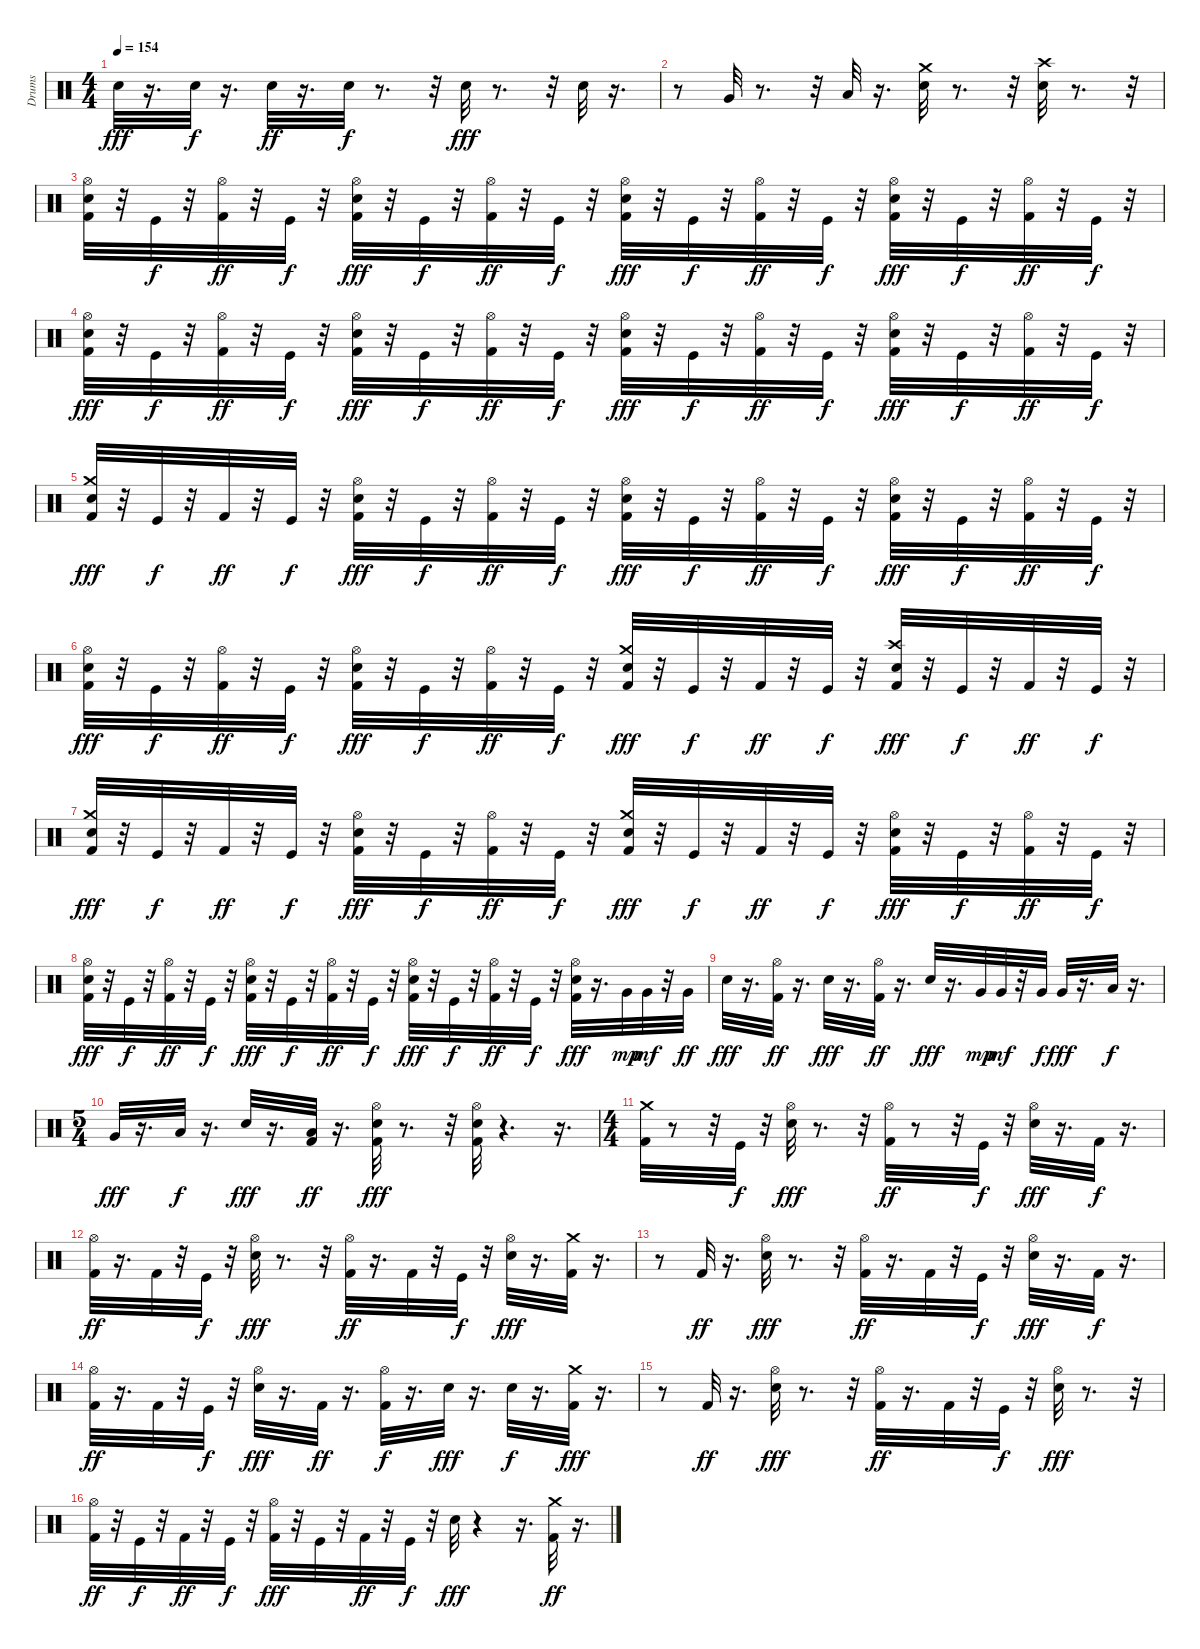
\track ("Drums" "Drums") {instrument percussion}
\staff {score}
\articulation defaults
\ts (4 4)
\tempo 154
\clef neutral
\ks c "Snare (hit) 2".32{dy fff}
r.16{d} "Snare (hit) 2".32{dy f} r.16{d} "Snare (hit) 2".32{dy ff} r.16{d} "Snare (hit) 2".32{dy f} r.8{d} r.32 "Snare (hit) 2".32{dy fff} r.8{d} r.32 "Snare (hit) 2".32 r.16{d} |
r.8 "Very Low Tom (hit)".32 r.8{d} r.32 "Low Floor Tom (hit)".32 r.16{d} ("Crash medium (hit)" "Snare (hit) 2").32 r.8{d} r.32 ("Crash high (hit)" "Snare (hit) 2").32 r.8{d} r.32 |
("Kick (hit) 2" "Snare (hit) 2" "Hi-Hat (open)").32 r.32 "Kick (hit)".32{dy f} r.32 ("Kick (hit) 2" "Hi-Hat (open)").32{dy ff} r.32 "Kick (hit)".32{dy f} r.32 ("Kick (hit) 2" "Snare (hit) 2" "Hi-Hat (open)").32{dy fff} r.32 "Kick (hit)".32{dy f} r.32 ("Kick (hit) 2" "Hi-Hat (open)").32{dy ff} r.32 "Kick (hit)".32{dy f} r.32 ("Kick (hit) 2" "Snare (hit) 2" "Hi-Hat (open)").32{dy fff} r.32 "Kick (hit)".32{dy f} r.32 ("Kick (hit) 2" "Hi-Hat (open)").32{dy ff} r.32 "Kick (hit)".32{dy f} r.32 ("Kick (hit) 2" "Snare (hit) 2" "Hi-Hat (open)").32{dy fff} r.32 "Kick (hit)".32{dy f} r.32 ("Kick (hit) 2" "Hi-Hat (open)").32{dy ff} r.32 "Kick (hit)".32{dy f} r.32 |
("Kick (hit) 2" "Snare (hit) 2" "Hi-Hat (open)").32{dy fff} r.32 "Kick (hit)".32{dy f} r.32 ("Kick (hit) 2" "Hi-Hat (open)").32{dy ff} r.32 "Kick (hit)".32{dy f} r.32 ("Kick (hit) 2" "Snare (hit) 2" "Hi-Hat (open)").32{dy fff} r.32 "Kick (hit)".32{dy f} r.32 ("Kick (hit) 2" "Hi-Hat (open)").32{dy ff} r.32 "Kick (hit)".32{dy f} r.32 ("Kick (hit) 2" "Snare (hit) 2" "Hi-Hat (open)").32{dy fff} r.32 "Kick (hit)".32{dy f} r.32 ("Kick (hit) 2" "Hi-Hat (open)").32{dy ff} r.32 "Kick (hit)".32{dy f} r.32 ("Kick (hit) 2" "Snare (hit) 2" "Hi-Hat (open)").32{dy fff} r.32 "Kick (hit)".32{dy f} r.32 ("Kick (hit) 2" "Hi-Hat (open)").32{dy ff} r.32 "Kick (hit)".32{dy f} r.32 |
("Kick (hit) 2" "Snare (hit) 2" "Crash medium (hit)").32{dy fff} r.32 "Kick (hit)".32{dy f} r.32 "Kick (hit) 2".32{dy ff} r.32 "Kick (hit)".32{dy f} r.32 ("Kick (hit) 2" "Snare (hit) 2" "Hi-Hat (open)").32{dy fff} r.32 "Kick (hit)".32{dy f} r.32 ("Kick (hit) 2" "Hi-Hat (open)").32{dy ff} r.32 "Kick (hit)".32{dy f} r.32 ("Kick (hit) 2" "Snare (hit) 2" "Hi-Hat (open)").32{dy fff} r.32 "Kick (hit)".32{dy f} r.32 ("Kick (hit) 2" "Hi-Hat (open)").32{dy ff} r.32 "Kick (hit)".32{dy f} r.32 ("Kick (hit) 2" "Snare (hit) 2" "Hi-Hat (open)").32{dy fff} r.32 "Kick (hit)".32{dy f} r.32 ("Kick (hit) 2" "Hi-Hat (open)").32{dy ff} r.32 "Kick (hit)".32{dy f} r.32 |
("Kick (hit) 2" "Snare (hit) 2" "Hi-Hat (open)").32{dy fff} r.32 "Kick (hit)".32{dy f} r.32 ("Kick (hit) 2" "Hi-Hat (open)").32{dy ff} r.32 "Kick (hit)".32{dy f} r.32 ("Kick (hit) 2" "Snare (hit) 2" "Hi-Hat (open)").32{dy fff} r.32 "Kick (hit)".32{dy f} r.32 ("Kick (hit) 2" "Hi-Hat (open)").32{dy ff} r.32 "Kick (hit)".32{dy f} r.32 ("Crash medium (hit)" "Kick (hit) 2" "Snare (hit) 2").32{dy fff} r.32 "Kick (hit)".32{dy f} r.32 "Kick (hit) 2".32{dy ff} r.32 "Kick (hit)".32{dy f} r.32 ("Crash high (hit)" "Kick (hit) 2" "Snare (hit) 2").32{dy fff} r.32 "Kick (hit)".32{dy f} r.32 "Kick (hit) 2".32{dy ff} r.32 "Kick (hit)".32{dy f} r.32 |
("Kick (hit) 2" "Snare (hit) 2" "Crash medium (hit)").32{dy fff} r.32 "Kick (hit)".32{dy f} r.32 "Kick (hit) 2".32{dy ff} r.32 "Kick (hit)".32{dy f} r.32 ("Kick (hit) 2" "Snare (hit) 2" "Hi-Hat (open)").32{dy fff} r.32 "Kick (hit)".32{dy f} r.32 ("Kick (hit) 2" "Hi-Hat (open)").32{dy ff} r.32 "Kick (hit)".32{dy f} r.32 ("Kick (hit) 2" "Snare (hit) 2" "Crash medium (hit)").32{dy fff} r.32 "Kick (hit)".32{dy f} r.32 "Kick (hit) 2".32{dy ff} r.32 "Kick (hit)".32{dy f} r.32 ("Kick (hit) 2" "Snare (hit) 2" "Hi-Hat (open)").32{dy fff} r.32 "Kick (hit)".32{dy f} r.32 ("Kick (hit) 2" "Hi-Hat (open)").32{dy ff} r.32 "Kick (hit)".32{dy f} r.32 |
("Kick (hit) 2" "Snare (hit) 2" "Hi-Hat (open)").32{dy fff} r.32 "Kick (hit)".32{dy f} r.32 ("Kick (hit) 2" "Hi-Hat (open)").32{dy ff} r.32 "Kick (hit)".32{dy f} r.32 ("Kick (hit) 2" "Snare (hit) 2" "Hi-Hat (open)").32{dy fff} r.32 "Kick (hit)".32{dy f} r.32 ("Kick (hit) 2" "Hi-Hat (open)").32{dy ff} r.32 "Kick (hit)".32{dy f} r.32 ("Kick (hit) 2" "Snare (hit) 2" "Hi-Hat (open)").32{dy fff} r.32 "Kick (hit)".32{dy f} r.32 ("Kick (hit) 2" "Hi-Hat (open)").32{dy ff} r.32 "Kick (hit)".32{dy f} r.32 ("Kick (hit) 2" "Snare (hit) 2" "Hi-Hat (open)").32{dy fff} r.16{d} "Very Low Tom (hit)".32{dy mp} "Very Low Tom (hit)".32{dy mf} r.32 "Very Low Tom (hit)".32{dy ff} |
"Snare (hit) 2".32{dy fff} r.16{d} ("Kick (hit) 2" "Hi-Hat (open)").32{dy ff} r.16{d} "Snare (hit) 2".32{dy fff} r.16{d} ("Kick (hit) 2" "Hi-Hat (open)").32{dy ff} r.16{d} "Snare (hit) 2".32{dy fff} r.16{d} "Very Low Tom (hit)".32{dy mp} "Very Low Tom (hit)".32{dy mf} r.32 "Very Low Tom (hit)".32{dy f} "Very Low Tom (hit)".32{dy fff} r.16{d} "Low Floor Tom (hit)".32{dy f} r.16{d} |
\ts (5 4)
"Very Low Tom (hit)".32{dy fff} r.16{d} "Low Floor Tom (hit)".32{dy f} r.16{d} "Snare (hit) 2".32{dy fff} r.16{d} ("Kick (hit) 2" "Low Floor Tom (hit)").32{dy ff} r.16{d} ("Snare (hit) 2" "Kick (hit) 2" "Hi-Hat (open)").32{dy fff} r.8{d} r.32 ("Snare (hit) 2" "Kick (hit) 2" "Hi-Hat (open)").32 r.4{d} r.16{d} |
\ts (4 4)
("Kick (hit) 2" "Crash medium (hit)").32 r.8 r.32 "Kick (hit)".32{dy f} r.32 ("Snare (hit) 2" "Hi-Hat (open)").32{dy fff} r.8{d} r.32 ("Kick (hit) 2" "Hi-Hat (open)").32{dy ff} r.8 r.32 "Kick (hit)".32{dy f} r.32 ("Snare (hit) 2" "Hi-Hat (open)").32{dy fff} r.16{d} "Kick (hit) 2".32{dy f} r.16{d} |
("Kick (hit) 2" "Hi-Hat (open)").32{dy ff} r.16{d} "Kick (hit) 2".32 r.32 "Kick (hit)".32{dy f} r.32 ("Snare (hit) 2" "Hi-Hat (open)").32{dy fff} r.8{d} r.32 ("Kick (hit) 2" "Hi-Hat (open)").32{dy ff} r.16{d} "Kick (hit) 2".32 r.32 "Kick (hit)".32{dy f} r.32 ("Snare (hit) 2" "Hi-Hat (open)").32{dy fff} r.16{d} ("Kick (hit) 2" "Crash medium (hit)").32 r.16{d} |
r.8 "Kick (hit) 2".32{dy ff} r.16{d} ("Snare (hit) 2" "Hi-Hat (open)").32{dy fff} r.8{d} r.32 ("Kick (hit) 2" "Hi-Hat (open)").32{dy ff} r.16{d} "Kick (hit) 2".32 r.32 "Kick (hit)".32{dy f} r.32 ("Snare (hit) 2" "Hi-Hat (open)").32{dy fff} r.16{d} "Kick (hit) 2".32{dy f} r.16{d} |
("Kick (hit) 2" "Hi-Hat (open)").32{dy ff} r.16{d} "Kick (hit) 2".32 r.32 "Kick (hit)".32{dy f} r.32 ("Snare (hit) 2" "Hi-Hat (open)").32{dy fff} r.16{d} "Kick (hit) 2".32{dy ff} r.16{d} ("Kick (hit) 2" "Hi-Hat (open)").32{dy f} r.16{d} "Snare (hit) 2".32{dy fff} r.16{d} "Snare (hit) 2".32{dy f} r.16{d} ("Kick (hit) 2" "Crash medium (hit)").32{dy fff} r.16{d} |
r.8 "Kick (hit) 2".32{dy ff} r.16{d} ("Snare (hit) 2" "Hi-Hat (open)").32{dy fff} r.8{d} r.32 ("Kick (hit) 2" "Hi-Hat (open)").32{dy ff} r.16{d} "Kick (hit) 2".32 r.32 "Kick (hit)".32{dy f} r.32 ("Snare (hit) 2" "Hi-Hat (open)").32{dy fff} r.8{d} r.32 |
("Kick (hit) 2" "Hi-Hat (open)").32{dy ff} r.32 "Kick (hit)".32{dy f} r.32 "Kick (hit) 2".32{dy ff} r.32 "Kick (hit)".32{dy f} r.32 ("Kick (hit) 2" "Hi-Hat (open)").32{dy fff} r.32 "Kick (hit)".32 r.32 "Kick (hit) 2".32{dy ff} r.32 "Kick (hit)".32{dy f} r.32 "Snare (hit) 2".32{dy fff} r.4 r.16{d} ("Crash medium (hit)" "Kick (hit) 2").32{dy ff} r.16{d}
